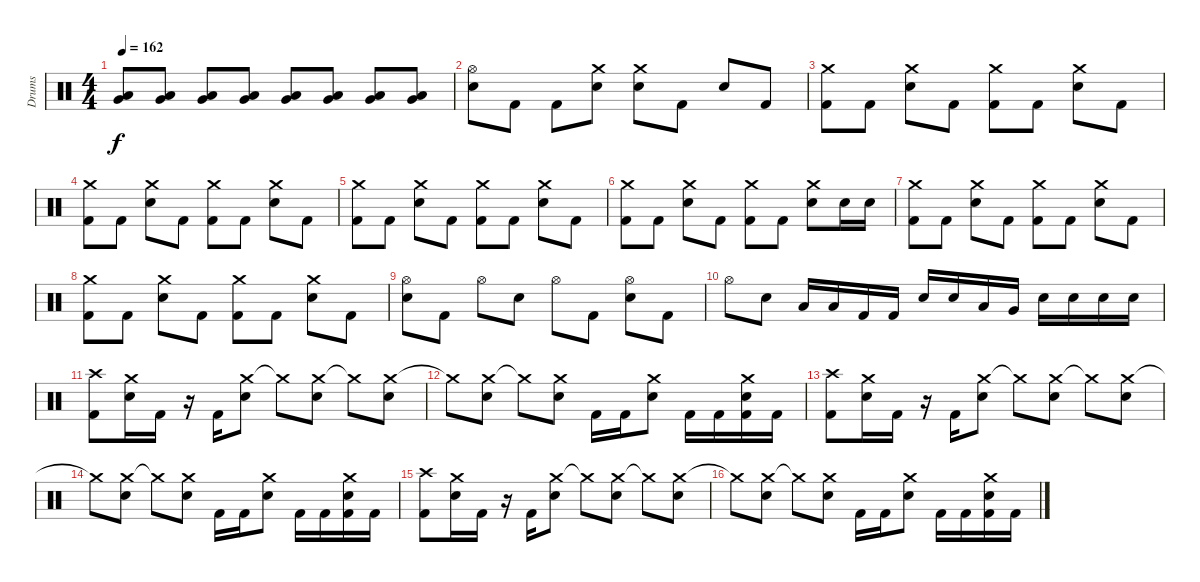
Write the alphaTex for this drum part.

\track ("Drums" "Drums") {instrument percussion}
\staff {score}
\articulation defaults
\ts (4 4)
\tempo 162
\clef neutral
\ks c
("Very Low Tom (hit)" "Low Tom (hit)").8{dy f} ("Very Low Tom (hit)" "Low Tom (hit)").8 ("Very Low Tom (hit)" "Low Tom (hit)").8 ("Very Low Tom (hit)" "Low Tom (hit)").8 ("Very Low Tom (hit)" "Low Tom (hit)").8 ("Very Low Tom (hit)" "Low Tom (hit)").8 ("Very Low Tom (hit)" "Low Tom (hit)").8 ("Very Low Tom (hit)" "Low Tom (hit)").8 |
("Hi-Hat (open)" "Electric Snare (hit)").8 "Kick (hit) 2".8 "Kick (hit) 2".8 ("Crash medium (hit)" "Electric Snare (hit)").8 ("Crash medium (hit)" "Electric Snare (hit)").8 "Kick (hit) 2".8 "Electric Snare (hit)".8 "Kick (hit) 2".8 |
("Crash medium (hit)" "Kick (hit) 2").8 "Kick (hit) 2".8 ("Crash medium (hit)" "Electric Snare (hit)").8 "Kick (hit) 2".8 ("Crash medium (hit)" "Kick (hit) 2").8 "Kick (hit) 2".8 ("Crash medium (hit)" "Electric Snare (hit)").8 "Kick (hit) 2".8 |
("Crash medium (hit)" "Kick (hit) 2").8 "Kick (hit) 2".8 ("Crash medium (hit)" "Electric Snare (hit)").8 "Kick (hit) 2".8 ("Crash medium (hit)" "Kick (hit) 2").8 "Kick (hit) 2".8 ("Crash medium (hit)" "Electric Snare (hit)").8 "Kick (hit) 2".8 |
("Crash medium (hit)" "Kick (hit) 2").8 "Kick (hit) 2".8 ("Crash medium (hit)" "Electric Snare (hit)").8 "Kick (hit) 2".8 ("Crash medium (hit)" "Kick (hit) 2").8 "Kick (hit) 2".8 ("Crash medium (hit)" "Electric Snare (hit)").8 "Kick (hit) 2".8 |
("Crash medium (hit)" "Kick (hit) 2").8 "Kick (hit) 2".8 ("Crash medium (hit)" "Electric Snare (hit)").8 "Kick (hit) 2".8 ("Crash medium (hit)" "Kick (hit) 2").8 "Kick (hit) 2".8 ("Crash medium (hit)" "Electric Snare (hit)").8 "Electric Snare (hit)".16 "Electric Snare (hit)".16 |
("Crash medium (hit)" "Kick (hit) 2").8 "Kick (hit) 2".8 ("Crash medium (hit)" "Electric Snare (hit)").8 "Kick (hit) 2".8 ("Crash medium (hit)" "Kick (hit) 2").8 "Kick (hit) 2".8 ("Crash medium (hit)" "Electric Snare (hit)").8 "Kick (hit) 2".8 |
("Crash medium (hit)" "Kick (hit) 2").8 "Kick (hit) 2".8 ("Crash medium (hit)" "Electric Snare (hit)").8 "Kick (hit) 2".8 ("Crash medium (hit)" "Kick (hit) 2").8 "Kick (hit) 2".8 ("Crash medium (hit)" "Electric Snare (hit)").8 "Kick (hit) 2".8 |
("Hi-Hat (open)" "Electric Snare (hit)").8 "Kick (hit) 2".8 "Hi-Hat (open)".8 "Electric Snare (hit)".8 "Hi-Hat (open)".8 "Kick (hit) 2".8 ("Hi-Hat (open)" "Electric Snare (hit)").8 "Kick (hit) 2".8 |
"Hi-Hat (open)".8 "Electric Snare (hit)".8 "Low Tom (hit)".16 "Low Tom (hit)".16 "Kick (hit) 2".16 "Kick (hit) 2".16 "Electric Snare (hit)".16 "Electric Snare (hit)".16 "Low Tom (hit)".16 "Very Low Tom (hit)".16 "Electric Snare (hit)".16 "Electric Snare (hit)".16 "Electric Snare (hit)".16 "Electric Snare (hit)".16 |
("Crash high (hit)" "Kick (hit) 2").8 ("Crash medium (hit)" "Electric Snare (hit)").16 "Kick (hit) 2".16 r.16 "Kick (hit) 2".16 ("Crash medium (hit)" "Electric Snare (hit)").8 "Crash medium (hit)"{t}.8 ("Crash medium (hit)" "Electric Snare (hit)").8 "Crash medium (hit)"{t}.8 ("Crash medium (hit)" "Electric Snare (hit)").8 |
"Crash medium (hit)"{t}.8 ("Crash medium (hit)" "Electric Snare (hit)").8 "Crash medium (hit)"{t}.8 ("Crash medium (hit)" "Electric Snare (hit)").8 "Kick (hit) 2".16 "Kick (hit) 2".16 ("Crash medium (hit)" "Electric Snare (hit)").8 "Kick (hit) 2".16 "Kick (hit) 2".16 ("Crash medium (hit)" "Electric Snare (hit)" "Kick (hit) 2").16 "Kick (hit) 2".16 |
("Crash high (hit)" "Kick (hit) 2").8 ("Crash medium (hit)" "Electric Snare (hit)").16 "Kick (hit) 2".16 r.16 "Kick (hit) 2".16 ("Crash medium (hit)" "Electric Snare (hit)").8 "Crash medium (hit)"{t}.8 ("Crash medium (hit)" "Electric Snare (hit)").8 "Crash medium (hit)"{t}.8 ("Crash medium (hit)" "Electric Snare (hit)").8 |
"Crash medium (hit)"{t}.8 ("Crash medium (hit)" "Electric Snare (hit)").8 "Crash medium (hit)"{t}.8 ("Crash medium (hit)" "Electric Snare (hit)").8 "Kick (hit) 2".16 "Kick (hit) 2".16 ("Crash medium (hit)" "Electric Snare (hit)").8 "Kick (hit) 2".16 "Kick (hit) 2".16 ("Crash medium (hit)" "Electric Snare (hit)" "Kick (hit) 2").16 "Kick (hit) 2".16 |
("Crash high (hit)" "Kick (hit) 2").8 ("Crash medium (hit)" "Electric Snare (hit)").16 "Kick (hit) 2".16 r.16 "Kick (hit) 2".16 ("Crash medium (hit)" "Electric Snare (hit)").8 "Crash medium (hit)"{t}.8 ("Crash medium (hit)" "Electric Snare (hit)").8 "Crash medium (hit)"{t}.8 ("Crash medium (hit)" "Electric Snare (hit)").8 |
"Crash medium (hit)"{t}.8 ("Crash medium (hit)" "Electric Snare (hit)").8 "Crash medium (hit)"{t}.8 ("Crash medium (hit)" "Electric Snare (hit)").8 "Kick (hit) 2".16 "Kick (hit) 2".16 ("Crash medium (hit)" "Electric Snare (hit)").8 "Kick (hit) 2".16 "Kick (hit) 2".16 ("Crash medium (hit)" "Electric Snare (hit)" "Kick (hit) 2").16 "Kick (hit) 2".16
